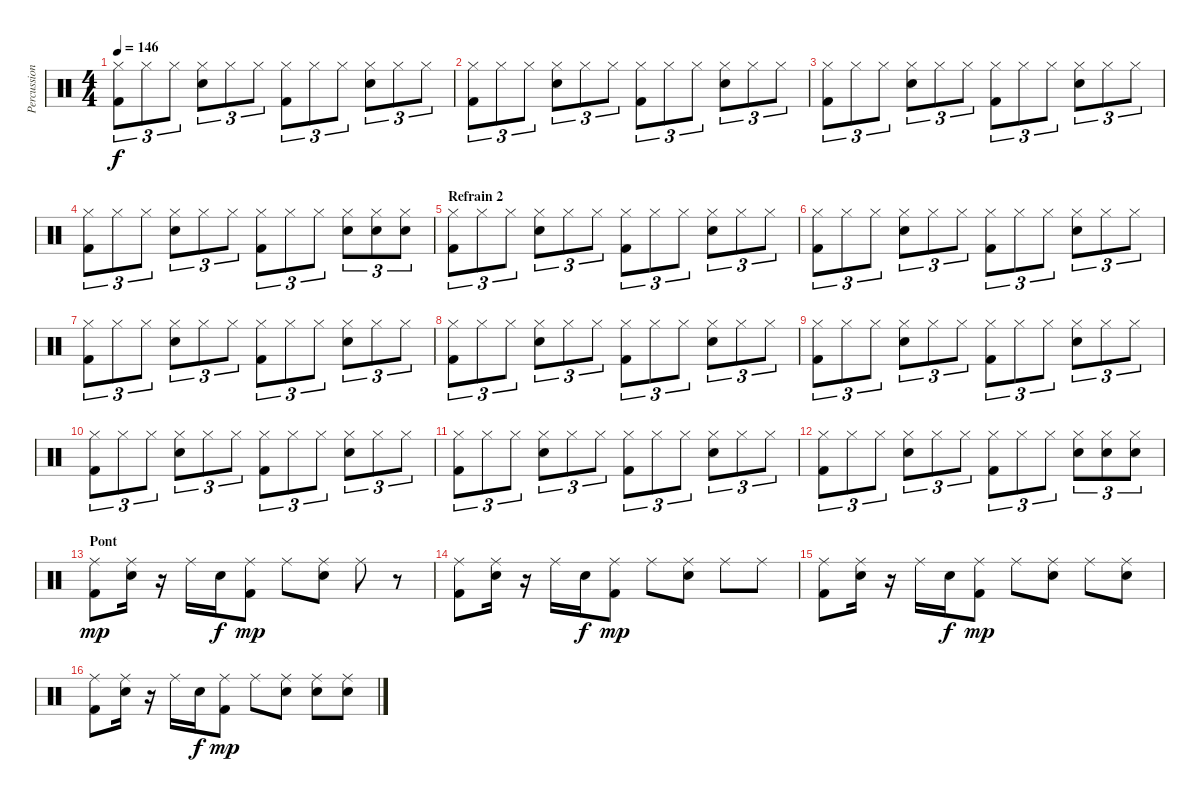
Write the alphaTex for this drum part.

\track ("Percussions" "Percussion") {instrument percussion}
\staff {score}
\articulation defaults
\ts (4 4)
\tempo 146
\clef neutral
\ks c
("Hi-Hat (closed)" "Kick (hit) 2").8{tu (3 2) dy f} "Hi-Hat (closed)".8{tu (3 2)} "Hi-Hat (closed)".8{tu (3 2)} ("Hi-Hat (closed)" "Electric Snare (hit)").8{tu (3 2)} "Hi-Hat (closed)".8{tu (3 2)} "Hi-Hat (closed)".8{tu (3 2)} ("Hi-Hat (closed)" "Kick (hit) 2").8{tu (3 2)} "Hi-Hat (closed)".8{tu (3 2)} "Hi-Hat (closed)".8{tu (3 2)} ("Hi-Hat (closed)" "Electric Snare (hit)").8{tu (3 2)} "Hi-Hat (closed)".8{tu (3 2)} "Hi-Hat (closed)".8{tu (3 2)} |
("Hi-Hat (closed)" "Kick (hit) 2").8{tu (3 2)} "Hi-Hat (closed)".8{tu (3 2)} "Hi-Hat (closed)".8{tu (3 2)} ("Hi-Hat (closed)" "Electric Snare (hit)").8{tu (3 2)} "Hi-Hat (closed)".8{tu (3 2)} "Hi-Hat (closed)".8{tu (3 2)} ("Hi-Hat (closed)" "Kick (hit) 2").8{tu (3 2)} "Hi-Hat (closed)".8{tu (3 2)} "Hi-Hat (closed)".8{tu (3 2)} ("Hi-Hat (closed)" "Electric Snare (hit)").8{tu (3 2)} "Hi-Hat (closed)".8{tu (3 2)} "Hi-Hat (closed)".8{tu (3 2)} |
("Hi-Hat (closed)" "Kick (hit) 2").8{tu (3 2)} "Hi-Hat (closed)".8{tu (3 2)} "Hi-Hat (closed)".8{tu (3 2)} ("Hi-Hat (closed)" "Electric Snare (hit)").8{tu (3 2)} "Hi-Hat (closed)".8{tu (3 2)} "Hi-Hat (closed)".8{tu (3 2)} ("Hi-Hat (closed)" "Kick (hit) 2").8{tu (3 2)} "Hi-Hat (closed)".8{tu (3 2)} "Hi-Hat (closed)".8{tu (3 2)} ("Hi-Hat (closed)" "Electric Snare (hit)").8{tu (3 2)} "Hi-Hat (closed)".8{tu (3 2)} "Hi-Hat (closed)".8{tu (3 2)} |
("Hi-Hat (closed)" "Kick (hit) 2").8{tu (3 2)} "Hi-Hat (closed)".8{tu (3 2)} "Hi-Hat (closed)".8{tu (3 2)} ("Hi-Hat (closed)" "Electric Snare (hit)").8{tu (3 2)} "Hi-Hat (closed)".8{tu (3 2)} "Hi-Hat (closed)".8{tu (3 2)} ("Hi-Hat (closed)" "Kick (hit) 2").8{tu (3 2)} "Hi-Hat (closed)".8{tu (3 2)} "Hi-Hat (closed)".8{tu (3 2)} ("Hi-Hat (closed)" "Electric Snare (hit)").8{tu (3 2)} ("Hi-Hat (closed)" "Electric Snare (hit)").8{tu (3 2)} ("Hi-Hat (closed)" "Electric Snare (hit)").8{tu (3 2)} |
\section ("" "Refrain 2")
("Hi-Hat (closed)" "Kick (hit) 2").8{tu (3 2)} "Hi-Hat (closed)".8{tu (3 2)} "Hi-Hat (closed)".8{tu (3 2)} ("Hi-Hat (closed)" "Electric Snare (hit)").8{tu (3 2)} "Hi-Hat (closed)".8{tu (3 2)} "Hi-Hat (closed)".8{tu (3 2)} ("Hi-Hat (closed)" "Kick (hit) 2").8{tu (3 2)} "Hi-Hat (closed)".8{tu (3 2)} "Hi-Hat (closed)".8{tu (3 2)} ("Hi-Hat (closed)" "Electric Snare (hit)").8{tu (3 2)} "Hi-Hat (closed)".8{tu (3 2)} "Hi-Hat (closed)".8{tu (3 2)} |
("Hi-Hat (closed)" "Kick (hit) 2").8{tu (3 2)} "Hi-Hat (closed)".8{tu (3 2)} "Hi-Hat (closed)".8{tu (3 2)} ("Hi-Hat (closed)" "Electric Snare (hit)").8{tu (3 2)} "Hi-Hat (closed)".8{tu (3 2)} "Hi-Hat (closed)".8{tu (3 2)} ("Hi-Hat (closed)" "Kick (hit) 2").8{tu (3 2)} "Hi-Hat (closed)".8{tu (3 2)} "Hi-Hat (closed)".8{tu (3 2)} ("Hi-Hat (closed)" "Electric Snare (hit)").8{tu (3 2)} "Hi-Hat (closed)".8{tu (3 2)} "Hi-Hat (closed)".8{tu (3 2)} |
("Hi-Hat (closed)" "Kick (hit) 2").8{tu (3 2)} "Hi-Hat (closed)".8{tu (3 2)} "Hi-Hat (closed)".8{tu (3 2)} ("Hi-Hat (closed)" "Electric Snare (hit)").8{tu (3 2)} "Hi-Hat (closed)".8{tu (3 2)} "Hi-Hat (closed)".8{tu (3 2)} ("Hi-Hat (closed)" "Kick (hit) 2").8{tu (3 2)} "Hi-Hat (closed)".8{tu (3 2)} "Hi-Hat (closed)".8{tu (3 2)} ("Hi-Hat (closed)" "Electric Snare (hit)").8{tu (3 2)} "Hi-Hat (closed)".8{tu (3 2)} "Hi-Hat (closed)".8{tu (3 2)} |
("Hi-Hat (closed)" "Kick (hit) 2").8{tu (3 2)} "Hi-Hat (closed)".8{tu (3 2)} "Hi-Hat (closed)".8{tu (3 2)} ("Hi-Hat (closed)" "Electric Snare (hit)").8{tu (3 2)} "Hi-Hat (closed)".8{tu (3 2)} "Hi-Hat (closed)".8{tu (3 2)} ("Hi-Hat (closed)" "Kick (hit) 2").8{tu (3 2)} "Hi-Hat (closed)".8{tu (3 2)} "Hi-Hat (closed)".8{tu (3 2)} ("Hi-Hat (closed)" "Electric Snare (hit)").8{tu (3 2)} "Hi-Hat (closed)".8{tu (3 2)} "Hi-Hat (closed)".8{tu (3 2)} |
("Hi-Hat (closed)" "Kick (hit) 2").8{tu (3 2)} "Hi-Hat (closed)".8{tu (3 2)} "Hi-Hat (closed)".8{tu (3 2)} ("Hi-Hat (closed)" "Electric Snare (hit)").8{tu (3 2)} "Hi-Hat (closed)".8{tu (3 2)} "Hi-Hat (closed)".8{tu (3 2)} ("Hi-Hat (closed)" "Kick (hit) 2").8{tu (3 2)} "Hi-Hat (closed)".8{tu (3 2)} "Hi-Hat (closed)".8{tu (3 2)} ("Hi-Hat (closed)" "Electric Snare (hit)").8{tu (3 2)} "Hi-Hat (closed)".8{tu (3 2)} "Hi-Hat (closed)".8{tu (3 2)} |
("Hi-Hat (closed)" "Kick (hit) 2").8{tu (3 2)} "Hi-Hat (closed)".8{tu (3 2)} "Hi-Hat (closed)".8{tu (3 2)} ("Hi-Hat (closed)" "Electric Snare (hit)").8{tu (3 2)} "Hi-Hat (closed)".8{tu (3 2)} "Hi-Hat (closed)".8{tu (3 2)} ("Hi-Hat (closed)" "Kick (hit) 2").8{tu (3 2)} "Hi-Hat (closed)".8{tu (3 2)} "Hi-Hat (closed)".8{tu (3 2)} ("Hi-Hat (closed)" "Electric Snare (hit)").8{tu (3 2)} "Hi-Hat (closed)".8{tu (3 2)} "Hi-Hat (closed)".8{tu (3 2)} |
("Hi-Hat (closed)" "Kick (hit) 2").8{tu (3 2)} "Hi-Hat (closed)".8{tu (3 2)} "Hi-Hat (closed)".8{tu (3 2)} ("Hi-Hat (closed)" "Electric Snare (hit)").8{tu (3 2)} "Hi-Hat (closed)".8{tu (3 2)} "Hi-Hat (closed)".8{tu (3 2)} ("Hi-Hat (closed)" "Kick (hit) 2").8{tu (3 2)} "Hi-Hat (closed)".8{tu (3 2)} "Hi-Hat (closed)".8{tu (3 2)} ("Hi-Hat (closed)" "Electric Snare (hit)").8{tu (3 2)} "Hi-Hat (closed)".8{tu (3 2)} "Hi-Hat (closed)".8{tu (3 2)} |
("Hi-Hat (closed)" "Kick (hit) 2").8{tu (3 2)} "Hi-Hat (closed)".8{tu (3 2)} "Hi-Hat (closed)".8{tu (3 2)} ("Hi-Hat (closed)" "Electric Snare (hit)").8{tu (3 2)} "Hi-Hat (closed)".8{tu (3 2)} "Hi-Hat (closed)".8{tu (3 2)} ("Hi-Hat (closed)" "Kick (hit) 2").8{tu (3 2)} "Hi-Hat (closed)".8{tu (3 2)} "Hi-Hat (closed)".8{tu (3 2)} ("Hi-Hat (closed)" "Electric Snare (hit)").8{tu (3 2)} ("Hi-Hat (closed)" "Electric Snare (hit)").8{tu (3 2)} ("Hi-Hat (closed)" "Electric Snare (hit)").8{tu (3 2)} |
\section ("" "Pont ")
("Ride (middle)" "Kick (hit) 2").8{dy mp} ("Ride (middle)" "Electric Snare (hit)").16 r.16 "Ride (middle)".16 "Electric Snare (hit)".16{dy f} ("Ride (middle)" "Kick (hit) 2").8{dy mp} "Ride (middle)".8 ("Ride (middle)" "Electric Snare (hit)").8 "Ride (middle)".8 r.8 |
("Ride (middle)" "Kick (hit) 2").8 ("Ride (middle)" "Electric Snare (hit)").16 r.16 "Ride (middle)".16 "Electric Snare (hit)".16{dy f} ("Ride (middle)" "Kick (hit) 2").8{dy mp} "Ride (middle)".8 ("Ride (middle)" "Electric Snare (hit)").8 "Ride (middle)".8 "Ride (middle)".8 |
("Ride (middle)" "Kick (hit) 2").8 ("Ride (middle)" "Electric Snare (hit)").16 r.16 "Ride (middle)".16 "Electric Snare (hit)".16{dy f} ("Ride (middle)" "Kick (hit) 2").8{dy mp} "Ride (middle)".8 ("Ride (middle)" "Electric Snare (hit)").8 "Ride (middle)".8 ("Ride (middle)" "Electric Snare (hit)").8 |
("Ride (middle)" "Kick (hit) 2").8 ("Ride (middle)" "Electric Snare (hit)").16 r.16 "Ride (middle)".16 "Electric Snare (hit)".16{dy f} ("Ride (middle)" "Kick (hit) 2").8{dy mp} "Ride (middle)".8 ("Ride (middle)" "Electric Snare (hit)").8 ("Ride (middle)" "Electric Snare (hit)").8 ("Ride (middle)" "Electric Snare (hit)").8
